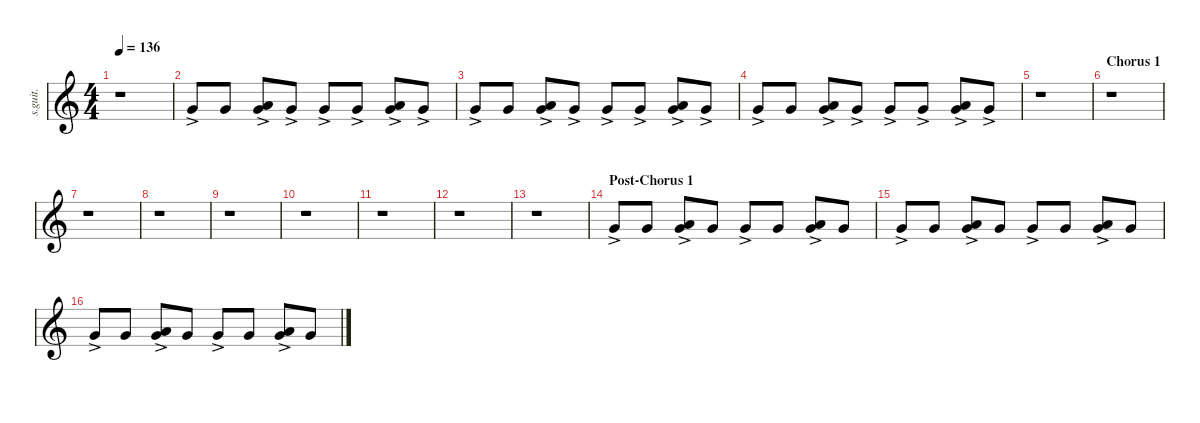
\defaultSystemsLayout 4
\hideDynamics
\bracketExtendMode nobrackets
\track ("Shawn Crahan " "s.guit.") {instrument percussion}
\staff {score}
\articulation defaults
\ts (4 4)
\tempo 136
\clef g2
\ks c
r.1{dy fff} |
"Very Low Tom (hit)"{ac}.8{lyrics (0 "") lyrics (1 "") lyrics (2 "") lyrics (3 "") lyrics (4 "")} "Very Low Tom (hit)".8{lyrics (0 "") lyrics (1 "") lyrics (2 "") lyrics (3 "") lyrics (4 "")} ("Very Low Tom (hit)"{ac} "Low Floor Tom (hit)").8{lyrics (0 "") lyrics (1 "") lyrics (2 "") lyrics (3 "") lyrics (4 "")} "Very Low Tom (hit)"{ac}.8{lyrics (0 "") lyrics (1 "") lyrics (2 "") lyrics (3 "") lyrics (4 "")} "Very Low Tom (hit)"{ac}.8{lyrics (0 "") lyrics (1 "") lyrics (2 "") lyrics (3 "") lyrics (4 "")} "Very Low Tom (hit)"{ac}.8{lyrics (0 "") lyrics (1 "") lyrics (2 "") lyrics (3 "") lyrics (4 "")} ("Very Low Tom (hit)"{ac} "Low Floor Tom (hit)").8{lyrics (0 "") lyrics (1 "") lyrics (2 "") lyrics (3 "") lyrics (4 "")} "Very Low Tom (hit)"{ac}.8{lyrics (0 "") lyrics (1 "") lyrics (2 "") lyrics (3 "") lyrics (4 "")} |
"Very Low Tom (hit)"{ac}.8{lyrics (0 "") lyrics (1 "") lyrics (2 "") lyrics (3 "") lyrics (4 "")} "Very Low Tom (hit)".8{lyrics (0 "") lyrics (1 "") lyrics (2 "") lyrics (3 "") lyrics (4 "")} ("Very Low Tom (hit)"{ac} "Low Floor Tom (hit)").8{lyrics (0 "") lyrics (1 "") lyrics (2 "") lyrics (3 "") lyrics (4 "")} "Very Low Tom (hit)"{ac}.8{lyrics (0 "") lyrics (1 "") lyrics (2 "") lyrics (3 "") lyrics (4 "")} "Very Low Tom (hit)"{ac}.8{lyrics (0 "") lyrics (1 "") lyrics (2 "") lyrics (3 "") lyrics (4 "")} "Very Low Tom (hit)"{ac}.8{lyrics (0 "") lyrics (1 "") lyrics (2 "") lyrics (3 "") lyrics (4 "")} ("Very Low Tom (hit)"{ac} "Low Floor Tom (hit)").8{lyrics (0 "") lyrics (1 "") lyrics (2 "") lyrics (3 "") lyrics (4 "")} "Very Low Tom (hit)"{ac}.8{lyrics (0 "") lyrics (1 "") lyrics (2 "") lyrics (3 "") lyrics (4 "")} |
"Very Low Tom (hit)"{ac}.8{lyrics (0 "") lyrics (1 "") lyrics (2 "") lyrics (3 "") lyrics (4 "")} "Very Low Tom (hit)".8{lyrics (0 "") lyrics (1 "") lyrics (2 "") lyrics (3 "") lyrics (4 "")} ("Very Low Tom (hit)"{ac} "Low Floor Tom (hit)").8{lyrics (0 "") lyrics (1 "") lyrics (2 "") lyrics (3 "") lyrics (4 "")} "Very Low Tom (hit)"{ac}.8{lyrics (0 "") lyrics (1 "") lyrics (2 "") lyrics (3 "") lyrics (4 "")} "Very Low Tom (hit)"{ac}.8{lyrics (0 "") lyrics (1 "") lyrics (2 "") lyrics (3 "") lyrics (4 "")} "Very Low Tom (hit)"{ac}.8{lyrics (0 "") lyrics (1 "") lyrics (2 "") lyrics (3 "") lyrics (4 "")} ("Very Low Tom (hit)"{ac} "Low Floor Tom (hit)").8{lyrics (0 "") lyrics (1 "") lyrics (2 "") lyrics (3 "") lyrics (4 "")} "Very Low Tom (hit)"{ac}.8{lyrics (0 "") lyrics (1 "") lyrics (2 "") lyrics (3 "") lyrics (4 "")} |
r.1 |
\section ("" "Chorus 1")
r.1 |
r.1 |
r.1 |
r.1 |
r.1 |
r.1 |
r.1 |
r.1 |
\section ("" "Post-Chorus 1")
"Very Low Tom (hit)"{ac}.8{lyrics (0 "") lyrics (1 "") lyrics (2 "") lyrics (3 "") lyrics (4 "")} "Very Low Tom (hit)".8{lyrics (0 "") lyrics (1 "") lyrics (2 "") lyrics (3 "") lyrics (4 "")} ("Very Low Tom (hit)"{ac} "Low Floor Tom (hit)").8{lyrics (0 "") lyrics (1 "") lyrics (2 "") lyrics (3 "") lyrics (4 "")} "Very Low Tom (hit)".8{lyrics (0 "") lyrics (1 "") lyrics (2 "") lyrics (3 "") lyrics (4 "")} "Very Low Tom (hit)"{ac}.8{lyrics (0 "") lyrics (1 "") lyrics (2 "") lyrics (3 "") lyrics (4 "")} "Very Low Tom (hit)".8{lyrics (0 "") lyrics (1 "") lyrics (2 "") lyrics (3 "") lyrics (4 "")} ("Very Low Tom (hit)"{ac} "Low Floor Tom (hit)").8{lyrics (0 "") lyrics (1 "") lyrics (2 "") lyrics (3 "") lyrics (4 "")} "Very Low Tom (hit)".8{lyrics (0 "") lyrics (1 "") lyrics (2 "") lyrics (3 "") lyrics (4 "")} |
"Very Low Tom (hit)"{ac}.8{lyrics (0 "") lyrics (1 "") lyrics (2 "") lyrics (3 "") lyrics (4 "")} "Very Low Tom (hit)".8{lyrics (0 "") lyrics (1 "") lyrics (2 "") lyrics (3 "") lyrics (4 "")} ("Very Low Tom (hit)"{ac} "Low Floor Tom (hit)").8{lyrics (0 "") lyrics (1 "") lyrics (2 "") lyrics (3 "") lyrics (4 "")} "Very Low Tom (hit)".8{lyrics (0 "") lyrics (1 "") lyrics (2 "") lyrics (3 "") lyrics (4 "")} "Very Low Tom (hit)"{ac}.8{lyrics (0 "") lyrics (1 "") lyrics (2 "") lyrics (3 "") lyrics (4 "")} "Very Low Tom (hit)".8{lyrics (0 "") lyrics (1 "") lyrics (2 "") lyrics (3 "") lyrics (4 "")} ("Very Low Tom (hit)"{ac} "Low Floor Tom (hit)").8{lyrics (0 "") lyrics (1 "") lyrics (2 "") lyrics (3 "") lyrics (4 "")} "Very Low Tom (hit)".8{lyrics (0 "") lyrics (1 "") lyrics (2 "") lyrics (3 "") lyrics (4 "")} |
"Very Low Tom (hit)"{ac}.8{lyrics (0 "") lyrics (1 "") lyrics (2 "") lyrics (3 "") lyrics (4 "")} "Very Low Tom (hit)".8{lyrics (0 "") lyrics (1 "") lyrics (2 "") lyrics (3 "") lyrics (4 "")} ("Very Low Tom (hit)"{ac} "Low Floor Tom (hit)").8{lyrics (0 "") lyrics (1 "") lyrics (2 "") lyrics (3 "") lyrics (4 "")} "Very Low Tom (hit)".8{lyrics (0 "") lyrics (1 "") lyrics (2 "") lyrics (3 "") lyrics (4 "")} "Very Low Tom (hit)"{ac}.8{lyrics (0 "") lyrics (1 "") lyrics (2 "") lyrics (3 "") lyrics (4 "")} "Very Low Tom (hit)".8{lyrics (0 "") lyrics (1 "") lyrics (2 "") lyrics (3 "") lyrics (4 "")} ("Very Low Tom (hit)"{ac} "Low Floor Tom (hit)").8{lyrics (0 "") lyrics (1 "") lyrics (2 "") lyrics (3 "") lyrics (4 "")} "Very Low Tom (hit)".8{lyrics (0 "") lyrics (1 "") lyrics (2 "") lyrics (3 "") lyrics (4 "")}
